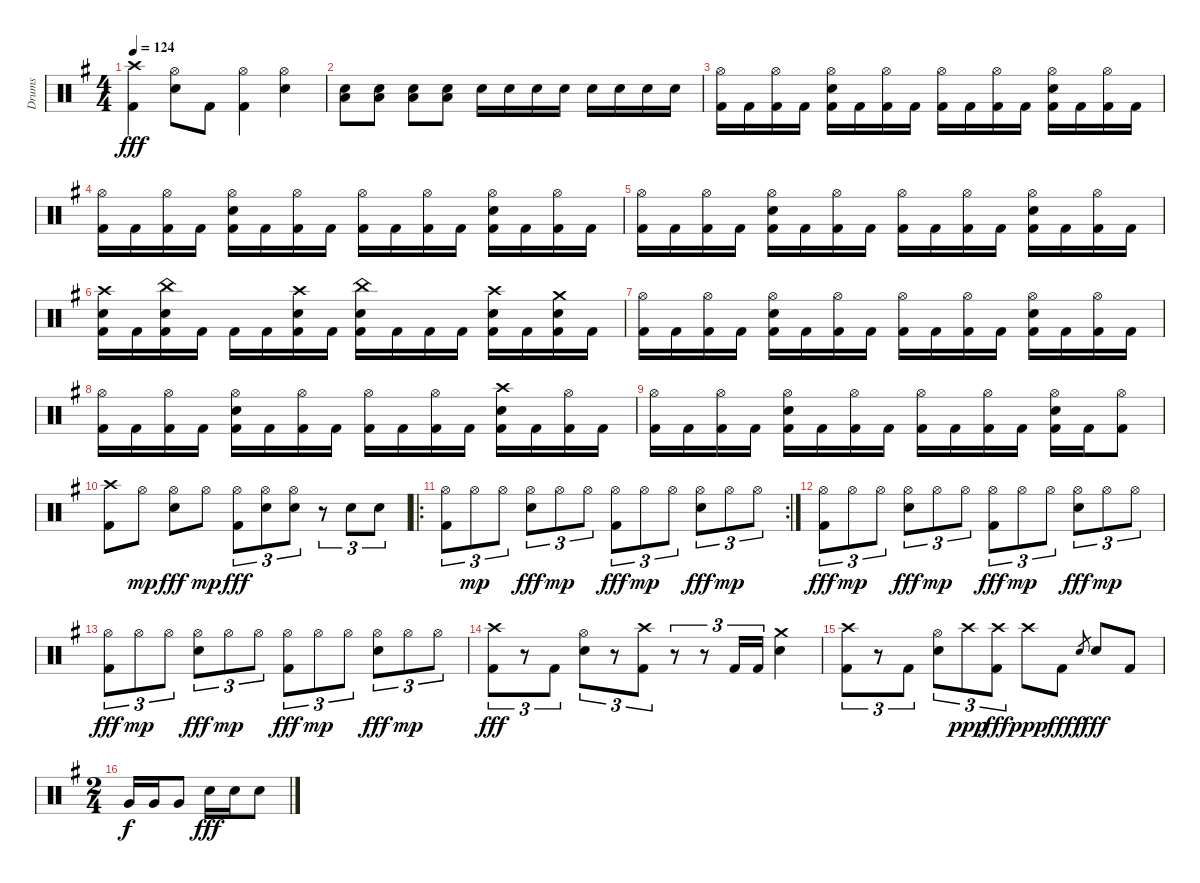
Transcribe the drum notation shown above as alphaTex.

\track ("Drums" "Drums") {instrument percussion}
\staff {score}
\articulation defaults
\ts (4 4)
\tempo 124
\clef neutral
\ks g
("Crash high (hit)" "Kick (hit) 2").4{dy fff} ("Hi-Hat (open)" "Electric Snare (hit)").8 "Kick (hit) 2".8 ("Hi-Hat (open)" "Kick (hit) 2").4 ("Hi-Hat (open)" "Electric Snare (hit)").4 |
("Low Tom (hit)" "Electric Snare (hit)").8 ("Low Tom (hit)" "Electric Snare (hit)").8 ("Low Tom (hit)" "Electric Snare (hit)").8 ("Low Tom (hit)" "Electric Snare (hit)").8 "Electric Snare (hit)".16 "Electric Snare (hit)".16 "Electric Snare (hit)".16 "Electric Snare (hit)".16 "Electric Snare (hit)".16 "Electric Snare (hit)".16 "Electric Snare (hit)".16 "Electric Snare (hit)".16 |
("Hi-Hat (open)" "Kick (hit) 2").16 "Kick (hit) 2".16 ("Hi-Hat (open)" "Kick (hit) 2").16 "Kick (hit) 2".16 ("Hi-Hat (open)" "Electric Snare (hit)" "Kick (hit) 2").16 "Kick (hit) 2".16 ("Hi-Hat (open)" "Kick (hit) 2").16 "Kick (hit) 2".16 ("Hi-Hat (open)" "Kick (hit) 2").16 "Kick (hit) 2".16 ("Hi-Hat (open)" "Kick (hit) 2").16 "Kick (hit) 2".16 ("Hi-Hat (open)" "Electric Snare (hit)" "Kick (hit) 2").16 "Kick (hit) 2".16 ("Hi-Hat (open)" "Kick (hit) 2").16 "Kick (hit) 2".16 |
("Hi-Hat (open)" "Kick (hit) 2").16 "Kick (hit) 2".16 ("Hi-Hat (open)" "Kick (hit) 2").16 "Kick (hit) 2".16 ("Hi-Hat (open)" "Electric Snare (hit)" "Kick (hit) 2").16 "Kick (hit) 2".16 ("Hi-Hat (open)" "Kick (hit) 2").16 "Kick (hit) 2".16 ("Hi-Hat (open)" "Kick (hit) 2").16 "Kick (hit) 2".16 ("Hi-Hat (open)" "Kick (hit) 2").16 "Kick (hit) 2".16 ("Hi-Hat (open)" "Electric Snare (hit)" "Kick (hit) 2").16 "Kick (hit) 2".16 ("Hi-Hat (open)" "Kick (hit) 2").16 "Kick (hit) 2".16 |
("Hi-Hat (open)" "Kick (hit) 2").16 "Kick (hit) 2".16 ("Hi-Hat (open)" "Kick (hit) 2").16 "Kick (hit) 2".16 ("Hi-Hat (open)" "Electric Snare (hit)" "Kick (hit) 2").16 "Kick (hit) 2".16 ("Hi-Hat (open)" "Kick (hit) 2").16 "Kick (hit) 2".16 ("Hi-Hat (open)" "Kick (hit) 2").16 "Kick (hit) 2".16 ("Hi-Hat (open)" "Kick (hit) 2").16 "Kick (hit) 2".16 ("Hi-Hat (open)" "Electric Snare (hit)" "Kick (hit) 2").16 "Kick (hit) 2".16 ("Hi-Hat (open)" "Kick (hit) 2").16 "Kick (hit) 2".16 |
("Crash high (hit)" "Electric Snare (hit)" "Kick (hit) 2").16 "Kick (hit) 2".16 ("China (hit)" "Electric Snare (hit)" "Kick (hit) 2").16 "Kick (hit) 2".16 "Kick (hit) 2".16 "Kick (hit) 2".16 ("Crash high (hit)" "Electric Snare (hit)" "Kick (hit) 2").16 "Kick (hit) 2".16 ("China (hit)" "Electric Snare (hit)" "Kick (hit) 2").16 "Kick (hit) 2".16 "Kick (hit) 2".16 "Kick (hit) 2".16 ("Crash high (hit)" "Electric Snare (hit)" "Kick (hit) 2").16 "Kick (hit) 2".16 ("Crash medium (hit)" "Electric Snare (hit)" "Kick (hit) 2").16 "Kick (hit) 2".16 |
("Hi-Hat (open)" "Kick (hit) 2").16 "Kick (hit) 2".16 ("Hi-Hat (open)" "Kick (hit) 2").16 "Kick (hit) 2".16 ("Hi-Hat (open)" "Electric Snare (hit)" "Kick (hit) 2").16 "Kick (hit) 2".16 ("Hi-Hat (open)" "Kick (hit) 2").16 "Kick (hit) 2".16 ("Hi-Hat (open)" "Kick (hit) 2").16 "Kick (hit) 2".16 ("Hi-Hat (open)" "Kick (hit) 2").16 "Kick (hit) 2".16 ("Hi-Hat (open)" "Electric Snare (hit)" "Kick (hit) 2").16 "Kick (hit) 2".16 ("Hi-Hat (open)" "Kick (hit) 2").16 "Kick (hit) 2".16 |
("Hi-Hat (open)" "Kick (hit) 2").16 "Kick (hit) 2".16 ("Hi-Hat (open)" "Kick (hit) 2").16 "Kick (hit) 2".16 ("Hi-Hat (open)" "Electric Snare (hit)" "Kick (hit) 2").16 "Kick (hit) 2".16 ("Hi-Hat (open)" "Kick (hit) 2").16 "Kick (hit) 2".16 ("Hi-Hat (open)" "Kick (hit) 2").16 "Kick (hit) 2".16 ("Hi-Hat (open)" "Kick (hit) 2").16 "Kick (hit) 2".16 ("Crash high (hit)" "Electric Snare (hit)" "Kick (hit) 2").16 "Kick (hit) 2".16 ("Hi-Hat (open)" "Kick (hit) 2").16 "Kick (hit) 2".16 |
("Hi-Hat (open)" "Kick (hit) 2").16 "Kick (hit) 2".16 ("Hi-Hat (open)" "Kick (hit) 2").16 "Kick (hit) 2".16 ("Hi-Hat (open)" "Electric Snare (hit)" "Kick (hit) 2").16 "Kick (hit) 2".16 ("Hi-Hat (open)" "Kick (hit) 2").16 "Kick (hit) 2".16 ("Hi-Hat (open)" "Kick (hit) 2").16 "Kick (hit) 2".16 ("Hi-Hat (open)" "Kick (hit) 2").16 "Kick (hit) 2".16 ("Hi-Hat (open)" "Electric Snare (hit)" "Kick (hit) 2").16 "Kick (hit) 2".16 ("Hi-Hat (open)" "Kick (hit) 2").8 |
("Crash high (hit)" "Kick (hit) 2").8 "Hi-Hat (open)".8{dy mp} ("Hi-Hat (open)" "Electric Snare (hit)").8{dy fff} "Hi-Hat (open)".8{dy mp} ("Hi-Hat (open)" "Kick (hit) 2").8{tu (3 2) dy fff} ("Hi-Hat (open)" "Electric Snare (hit)").8{tu (3 2)} ("Hi-Hat (open)" "Electric Snare (hit)").8{tu (3 2)} r.8{tu (3 2)} "Electric Snare (hit)".8{tu (3 2)} "Electric Snare (hit)".8{tu (3 2)} |
\ro
\rc 2
("Hi-Hat (open)" "Kick (hit) 2").8{tu (3 2)} "Hi-Hat (open)".8{tu (3 2) dy mp} "Hi-Hat (open)".8{tu (3 2)} ("Hi-Hat (open)" "Electric Snare (hit)").8{tu (3 2) dy fff} "Hi-Hat (open)".8{tu (3 2) dy mp} "Hi-Hat (open)".8{tu (3 2)} ("Hi-Hat (open)" "Kick (hit) 2").8{tu (3 2) dy fff} "Hi-Hat (open)".8{tu (3 2) dy mp} "Hi-Hat (open)".8{tu (3 2)} ("Hi-Hat (open)" "Electric Snare (hit)").8{tu (3 2) dy fff} "Hi-Hat (open)".8{tu (3 2) dy mp} "Hi-Hat (open)".8{tu (3 2)} |
("Hi-Hat (open)" "Kick (hit) 2").8{tu (3 2) dy fff} "Hi-Hat (open)".8{tu (3 2) dy mp} "Hi-Hat (open)".8{tu (3 2)} ("Hi-Hat (open)" "Electric Snare (hit)").8{tu (3 2) dy fff} "Hi-Hat (open)".8{tu (3 2) dy mp} "Hi-Hat (open)".8{tu (3 2)} ("Hi-Hat (open)" "Kick (hit) 2").8{tu (3 2) dy fff} "Hi-Hat (open)".8{tu (3 2) dy mp} "Hi-Hat (open)".8{tu (3 2)} ("Hi-Hat (open)" "Electric Snare (hit)").8{tu (3 2) dy fff} "Hi-Hat (open)".8{tu (3 2) dy mp} "Hi-Hat (open)".8{tu (3 2)} |
("Hi-Hat (open)" "Kick (hit) 2").8{tu (3 2) dy fff} "Hi-Hat (open)".8{tu (3 2) dy mp} "Hi-Hat (open)".8{tu (3 2)} ("Hi-Hat (open)" "Electric Snare (hit)").8{tu (3 2) dy fff} "Hi-Hat (open)".8{tu (3 2) dy mp} "Hi-Hat (open)".8{tu (3 2)} ("Hi-Hat (open)" "Kick (hit) 2").8{tu (3 2) dy fff} "Hi-Hat (open)".8{tu (3 2) dy mp} "Hi-Hat (open)".8{tu (3 2)} ("Hi-Hat (open)" "Electric Snare (hit)").8{tu (3 2) dy fff} "Hi-Hat (open)".8{tu (3 2) dy mp} "Hi-Hat (open)".8{tu (3 2)} |
("Crash high (hit)" "Kick (hit) 2").8{tu (3 2) dy fff} r.8{tu (3 2)} "Kick (hit) 2".8{tu (3 2)} ("Hi-Hat (open)" "Electric Snare (hit)").8{tu (3 2)} r.8{tu (3 2)} ("Crash high (hit)" "Kick (hit) 2").8{tu (3 2)} r.8{tu (3 2)} r.8{tu (3 2)} "Kick (hit) 2".16{tu (3 2)} "Kick (hit) 2".16{tu (3 2)} ("Crash medium (hit)" "Electric Snare (hit)").4 |
("Crash high (hit)" "Kick (hit) 2").8{tu (3 2)} r.8{tu (3 2)} "Kick (hit) 2".8{tu (3 2)} ("Hi-Hat (open)" "Electric Snare (hit)").8{tu (3 2)} "Crash high (hit)".8{tu (3 2) dy ppp} ("Crash high (hit)" "Kick (hit) 2").8{tu (3 2) dy fff} "Crash high (hit)".8{dy ppp} "Kick (hit) 2".8{dy fff} "Electric Snare (hit)".8{gr dy f} "Electric Snare (hit)".8{dy fff} "Kick (hit) 2".8 |
\ts (2 4)
"Very Low Tom (hit)".16{dy f} "Very Low Tom (hit)".16 "Very Low Tom (hit)".8 "Electric Snare (hit)".16{dy fff} "Electric Snare (hit)".16 "Electric Snare (hit)".8
